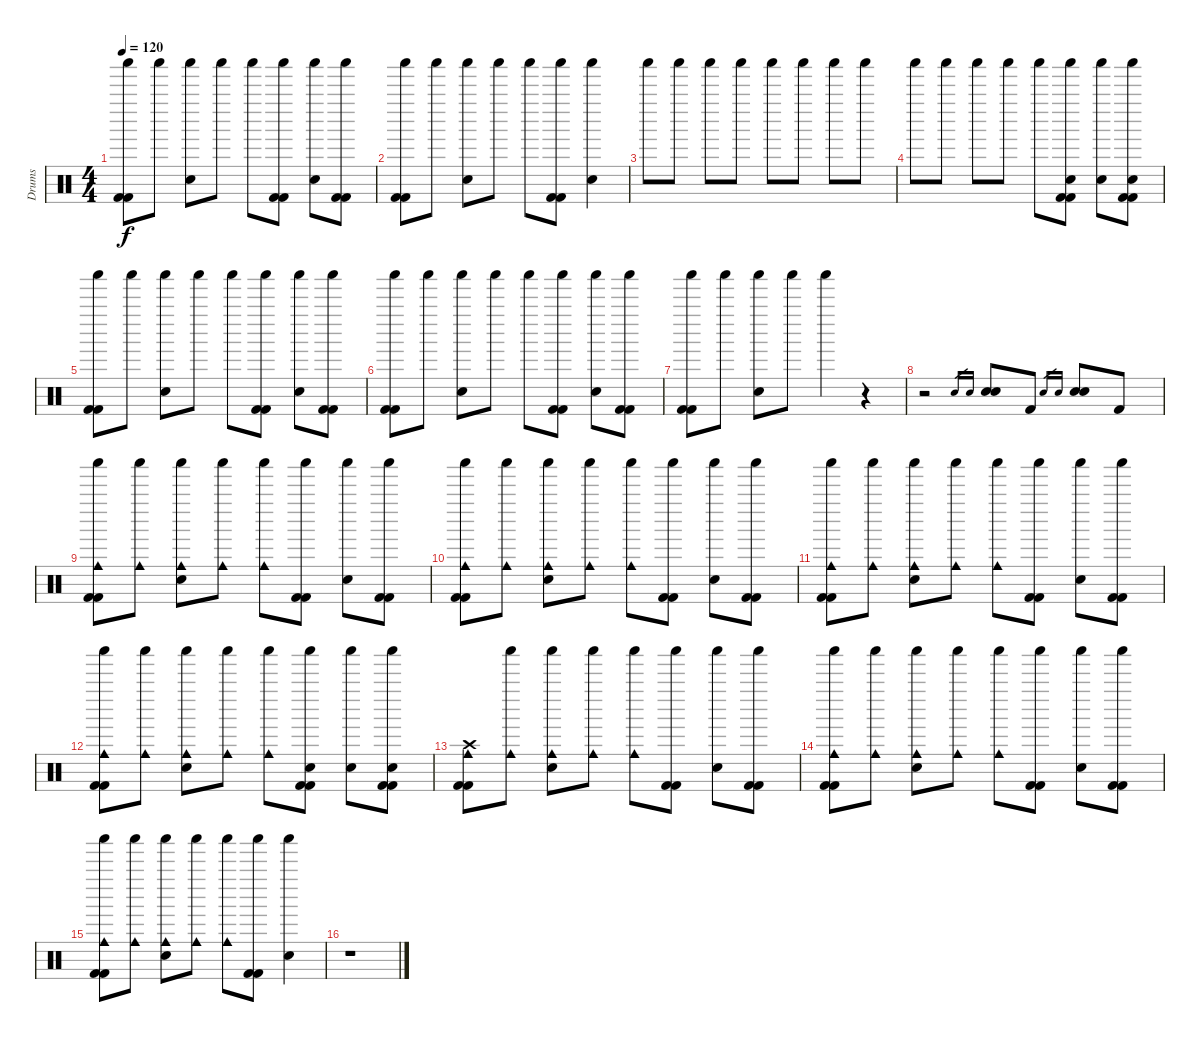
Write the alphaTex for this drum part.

\track ("Drums" "Drums") {instrument percussion}
\staff {score}
\articulation defaults
\ts (4 4)
\tempo 120
\clef neutral
\ks c
("Shaker (hit)" "Kick (hit) 2" "Kick (hit) 2").8{dy f} "Shaker (hit)".8 ("Shaker (hit)" "Electric Snare (hit)").8 "Shaker (hit)".8 "Shaker (hit)".8 ("Shaker (hit)" "Kick (hit) 2" "Kick (hit) 2").8 ("Shaker (hit)" "Electric Snare (hit)").8 ("Shaker (hit)" "Kick (hit) 2" "Kick (hit) 2").8 |
("Shaker (hit)" "Kick (hit) 2" "Kick (hit) 2").8 "Shaker (hit)".8 ("Shaker (hit)" "Electric Snare (hit)").8 "Shaker (hit)".8 "Shaker (hit)".8 ("Shaker (hit)" "Kick (hit) 2" "Kick (hit) 2").8 ("Shaker (hit)" "Electric Snare (hit)").4 |
"Shaker (hit)".8 "Shaker (hit)".8 "Shaker (hit)".8 "Shaker (hit)".8 "Shaker (hit)".8 "Shaker (hit)".8 "Shaker (hit)".8 "Shaker (hit)".8 |
"Shaker (hit)".8 "Shaker (hit)".8 "Shaker (hit)".8 "Shaker (hit)".8 "Shaker (hit)".8 ("Shaker (hit)" "Electric Snare (hit)" "Kick (hit) 2" "Kick (hit) 2").8 ("Shaker (hit)" "Electric Snare (hit)").8 ("Shaker (hit)" "Electric Snare (hit)" "Kick (hit) 2" "Kick (hit) 2").8 |
("Shaker (hit)" "Kick (hit) 2" "Kick (hit) 2").8 "Shaker (hit)".8 ("Shaker (hit)" "Electric Snare (hit)").8 "Shaker (hit)".8 "Shaker (hit)".8 ("Shaker (hit)" "Kick (hit) 2" "Kick (hit) 2").8 ("Shaker (hit)" "Electric Snare (hit)").8 ("Shaker (hit)" "Kick (hit) 2" "Kick (hit) 2").8 |
("Shaker (hit)" "Kick (hit) 2" "Kick (hit) 2").8 "Shaker (hit)".8 ("Shaker (hit)" "Electric Snare (hit)").8 "Shaker (hit)".8 "Shaker (hit)".8 ("Shaker (hit)" "Kick (hit) 2" "Kick (hit) 2").8 ("Shaker (hit)" "Electric Snare (hit)").8 ("Shaker (hit)" "Kick (hit) 2" "Kick (hit) 2").8 |
("Shaker (hit)" "Kick (hit) 2" "Kick (hit) 2").8 "Shaker (hit)".8 ("Shaker (hit)" "Electric Snare (hit)").8 "Shaker (hit)".8 "Shaker (hit)".4 r.4 |
r.2 "Electric Snare (hit)".16{gr} "Electric Snare (hit)".16{gr} ("Electric Snare (hit)" "Electric Snare (hit)").8 "Kick (hit) 2".8 "Electric Snare (hit)".16{gr} "Electric Snare (hit)".16{gr} ("Electric Snare (hit)" "Electric Snare (hit)").8 "Kick (hit) 2".8 |
("Shaker (hit)" "Cowbell medium (hit)" "Kick (hit) 2" "Kick (hit) 2").8 ("Shaker (hit)" "Cowbell medium (hit)").8 ("Shaker (hit)" "Cowbell medium (hit)" "Electric Snare (hit)").8 ("Shaker (hit)" "Cowbell medium (hit)").8 ("Shaker (hit)" "Cowbell medium (hit)").8 ("Shaker (hit)" "Kick (hit) 2" "Kick (hit) 2").8 ("Shaker (hit)" "Electric Snare (hit)").8 ("Shaker (hit)" "Kick (hit) 2" "Kick (hit) 2").8 |
("Shaker (hit)" "Cowbell medium (hit)" "Kick (hit) 2" "Kick (hit) 2").8 ("Shaker (hit)" "Cowbell medium (hit)").8 ("Shaker (hit)" "Cowbell medium (hit)" "Electric Snare (hit)").8 ("Shaker (hit)" "Cowbell medium (hit)").8 ("Shaker (hit)" "Cowbell medium (hit)").8 ("Shaker (hit)" "Kick (hit) 2" "Kick (hit) 2").8 ("Shaker (hit)" "Electric Snare (hit)").8 ("Shaker (hit)" "Kick (hit) 2" "Kick (hit) 2").8 |
("Shaker (hit)" "Cowbell medium (hit)" "Kick (hit) 2" "Kick (hit) 2").8 ("Shaker (hit)" "Cowbell medium (hit)").8 ("Shaker (hit)" "Cowbell medium (hit)" "Electric Snare (hit)").8 ("Shaker (hit)" "Cowbell medium (hit)").8 ("Shaker (hit)" "Cowbell medium (hit)").8 ("Shaker (hit)" "Kick (hit) 2" "Kick (hit) 2").8 ("Shaker (hit)" "Electric Snare (hit)").8 ("Shaker (hit)" "Kick (hit) 2" "Kick (hit) 2").8 |
("Shaker (hit)" "Cowbell medium (hit)" "Kick (hit) 2" "Kick (hit) 2").8 ("Shaker (hit)" "Cowbell medium (hit)").8 ("Shaker (hit)" "Cowbell medium (hit)" "Electric Snare (hit)").8 ("Shaker (hit)" "Cowbell medium (hit)").8 ("Shaker (hit)" "Cowbell medium (hit)").8 ("Shaker (hit)" "Electric Snare (hit)" "Kick (hit) 2" "Kick (hit) 2").8 ("Shaker (hit)" "Electric Snare (hit)").8 ("Shaker (hit)" "Electric Snare (hit)" "Kick (hit) 2" "Kick (hit) 2").8 |
("Crash high (hit)" "Cowbell medium (hit)" "Kick (hit) 2" "Kick (hit) 2").8 ("Shaker (hit)" "Cowbell medium (hit)").8 ("Shaker (hit)" "Cowbell medium (hit)" "Electric Snare (hit)").8 ("Shaker (hit)" "Cowbell medium (hit)").8 ("Shaker (hit)" "Cowbell medium (hit)").8 ("Shaker (hit)" "Kick (hit) 2" "Kick (hit) 2").8 ("Shaker (hit)" "Electric Snare (hit)").8 ("Shaker (hit)" "Kick (hit) 2" "Kick (hit) 2").8 |
("Shaker (hit)" "Cowbell medium (hit)" "Kick (hit) 2" "Kick (hit) 2").8 ("Shaker (hit)" "Cowbell medium (hit)").8 ("Shaker (hit)" "Cowbell medium (hit)" "Electric Snare (hit)").8 ("Shaker (hit)" "Cowbell medium (hit)").8 ("Shaker (hit)" "Cowbell medium (hit)").8 ("Shaker (hit)" "Kick (hit) 2" "Kick (hit) 2").8 ("Shaker (hit)" "Electric Snare (hit)").8 ("Shaker (hit)" "Kick (hit) 2" "Kick (hit) 2").8 |
("Shaker (hit)" "Cowbell medium (hit)" "Kick (hit) 2" "Kick (hit) 2").8 ("Shaker (hit)" "Cowbell medium (hit)").8 ("Shaker (hit)" "Cowbell medium (hit)" "Electric Snare (hit)").8 ("Shaker (hit)" "Cowbell medium (hit)").8 ("Shaker (hit)" "Cowbell medium (hit)").8 ("Shaker (hit)" "Kick (hit) 2" "Kick (hit) 2").8 ("Shaker (hit)" "Electric Snare (hit)").4 |
r.1
